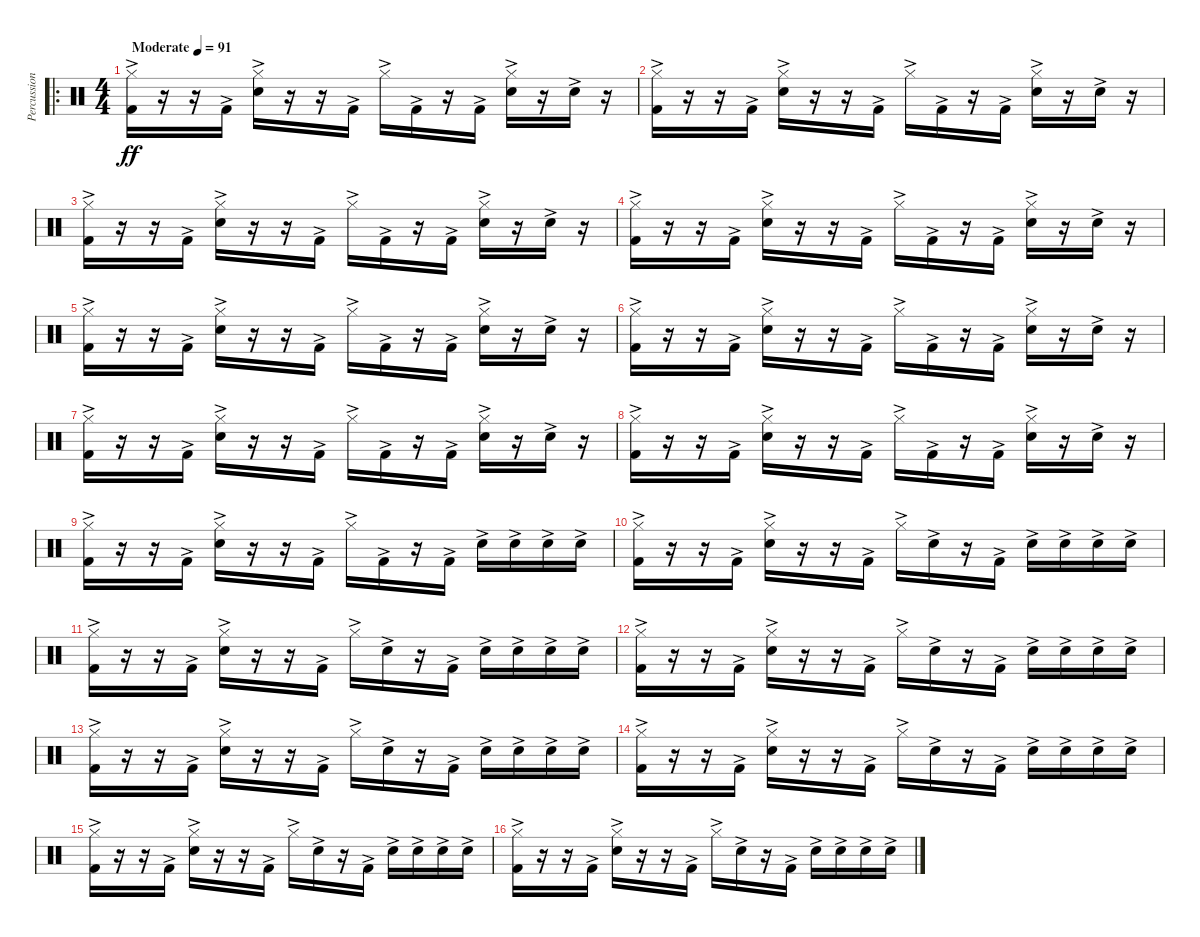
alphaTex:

\track ("Percussion" "Percussion") {instrument percussion}
\staff {score}
\articulation defaults
\ro
\ts (4 4)
\tempo (91 "Moderate")
\clef neutral
\ks c
("Hi-Hat (closed)"{ac} "Kick (hit) 2"{ac}).16{dy ff} r.16 r.16 "Kick (hit) 2"{ac}.16 ("Hi-Hat (closed)"{ac} "Snare (hit) 2"{ac}).16 r.16 r.16 "Kick (hit) 2"{ac}.16 "Hi-Hat (closed)"{ac}.16 "Kick (hit) 2"{ac}.16 r.16 "Kick (hit) 2"{ac}.16 ("Hi-Hat (closed)"{ac} "Snare (hit) 2"{ac}).16 r.16 "Snare (hit) 2"{ac}.16 r.16 |
("Hi-Hat (closed)"{ac} "Kick (hit) 2"{ac}).16 r.16 r.16 "Kick (hit) 2"{ac}.16 ("Hi-Hat (closed)"{ac} "Snare (hit) 2"{ac}).16 r.16 r.16 "Kick (hit) 2"{ac}.16 "Hi-Hat (closed)"{ac}.16 "Kick (hit) 2"{ac}.16 r.16 "Kick (hit) 2"{ac}.16 ("Hi-Hat (closed)"{ac} "Snare (hit) 2"{ac}).16 r.16 "Snare (hit) 2"{ac}.16 r.16 |
("Hi-Hat (closed)"{ac} "Kick (hit) 2"{ac}).16 r.16 r.16 "Kick (hit) 2"{ac}.16 ("Hi-Hat (closed)"{ac} "Snare (hit) 2"{ac}).16 r.16 r.16 "Kick (hit) 2"{ac}.16 "Hi-Hat (closed)"{ac}.16 "Kick (hit) 2"{ac}.16 r.16 "Kick (hit) 2"{ac}.16 ("Hi-Hat (closed)"{ac} "Snare (hit) 2"{ac}).16 r.16 "Snare (hit) 2"{ac}.16 r.16 |
("Hi-Hat (closed)"{ac} "Kick (hit) 2"{ac}).16 r.16 r.16 "Kick (hit) 2"{ac}.16 ("Hi-Hat (closed)"{ac} "Snare (hit) 2"{ac}).16 r.16 r.16 "Kick (hit) 2"{ac}.16 "Hi-Hat (closed)"{ac}.16 "Kick (hit) 2"{ac}.16 r.16 "Kick (hit) 2"{ac}.16 ("Hi-Hat (closed)"{ac} "Snare (hit) 2"{ac}).16 r.16 "Snare (hit) 2"{ac}.16 r.16 |
("Hi-Hat (closed)"{ac} "Kick (hit) 2"{ac}).16 r.16 r.16 "Kick (hit) 2"{ac}.16 ("Hi-Hat (closed)"{ac} "Snare (hit) 2"{ac}).16 r.16 r.16 "Kick (hit) 2"{ac}.16 "Hi-Hat (closed)"{ac}.16 "Kick (hit) 2"{ac}.16 r.16 "Kick (hit) 2"{ac}.16 ("Hi-Hat (closed)"{ac} "Snare (hit) 2"{ac}).16 r.16 "Snare (hit) 2"{ac}.16 r.16 |
("Hi-Hat (closed)"{ac} "Kick (hit) 2"{ac}).16 r.16 r.16 "Kick (hit) 2"{ac}.16 ("Hi-Hat (closed)"{ac} "Snare (hit) 2"{ac}).16 r.16 r.16 "Kick (hit) 2"{ac}.16 "Hi-Hat (closed)"{ac}.16 "Kick (hit) 2"{ac}.16 r.16 "Kick (hit) 2"{ac}.16 ("Hi-Hat (closed)"{ac} "Snare (hit) 2"{ac}).16 r.16 "Snare (hit) 2"{ac}.16 r.16 |
("Hi-Hat (closed)"{ac} "Kick (hit) 2"{ac}).16 r.16 r.16 "Kick (hit) 2"{ac}.16 ("Hi-Hat (closed)"{ac} "Snare (hit) 2"{ac}).16 r.16 r.16 "Kick (hit) 2"{ac}.16 "Hi-Hat (closed)"{ac}.16 "Kick (hit) 2"{ac}.16 r.16 "Kick (hit) 2"{ac}.16 ("Hi-Hat (closed)"{ac} "Snare (hit) 2"{ac}).16 r.16 "Snare (hit) 2"{ac}.16 r.16 |
("Hi-Hat (closed)"{ac} "Kick (hit) 2"{ac}).16 r.16 r.16 "Kick (hit) 2"{ac}.16 ("Hi-Hat (closed)"{ac} "Snare (hit) 2"{ac}).16 r.16 r.16 "Kick (hit) 2"{ac}.16 "Hi-Hat (closed)"{ac}.16 "Kick (hit) 2"{ac}.16 r.16 "Kick (hit) 2"{ac}.16 ("Hi-Hat (closed)"{ac} "Snare (hit) 2"{ac}).16 r.16 "Snare (hit) 2"{ac}.16 r.16 |
("Hi-Hat (closed)"{ac} "Kick (hit) 2"{ac}).16 r.16 r.16 "Kick (hit) 2"{ac}.16 ("Hi-Hat (closed)"{ac} "Snare (hit) 2"{ac}).16 r.16 r.16 "Kick (hit) 2"{ac}.16 "Hi-Hat (closed)"{ac}.16 "Kick (hit) 2"{ac}.16 r.16 "Kick (hit) 2"{ac}.16 "Snare (hit) 2"{ac}.16 "Snare (hit) 2"{ac}.16 "Snare (hit) 2"{ac}.16 "Snare (hit) 2"{ac}.16 |
("Hi-Hat (closed)"{ac} "Kick (hit) 2"{ac}).16 r.16 r.16 "Kick (hit) 2"{ac}.16 ("Hi-Hat (closed)"{ac} "Snare (hit) 2"{ac}).16 r.16 r.16 "Kick (hit) 2"{ac}.16 "Hi-Hat (closed)"{ac}.16 "Snare (hit) 2"{ac}.16 r.16 "Kick (hit) 2"{ac}.16 "Snare (hit) 2"{ac}.16 "Snare (hit) 2"{ac}.16 "Snare (hit) 2"{ac}.16 "Snare (hit) 2"{ac}.16 |
("Hi-Hat (closed)"{ac} "Kick (hit) 2"{ac}).16 r.16 r.16 "Kick (hit) 2"{ac}.16 ("Hi-Hat (closed)"{ac} "Snare (hit) 2"{ac}).16 r.16 r.16 "Kick (hit) 2"{ac}.16 "Hi-Hat (closed)"{ac}.16 "Snare (hit) 2"{ac}.16 r.16 "Kick (hit) 2"{ac}.16 "Snare (hit) 2"{ac}.16 "Snare (hit) 2"{ac}.16 "Snare (hit) 2"{ac}.16 "Snare (hit) 2"{ac}.16 |
("Hi-Hat (closed)"{ac} "Kick (hit) 2"{ac}).16 r.16 r.16 "Kick (hit) 2"{ac}.16 ("Hi-Hat (closed)"{ac} "Snare (hit) 2"{ac}).16 r.16 r.16 "Kick (hit) 2"{ac}.16 "Hi-Hat (closed)"{ac}.16 "Snare (hit) 2"{ac}.16 r.16 "Kick (hit) 2"{ac}.16 "Snare (hit) 2"{ac}.16 "Snare (hit) 2"{ac}.16 "Snare (hit) 2"{ac}.16 "Snare (hit) 2"{ac}.16 |
("Hi-Hat (closed)"{ac} "Kick (hit) 2"{ac}).16 r.16 r.16 "Kick (hit) 2"{ac}.16 ("Hi-Hat (closed)"{ac} "Snare (hit) 2"{ac}).16 r.16 r.16 "Kick (hit) 2"{ac}.16 "Hi-Hat (closed)"{ac}.16 "Snare (hit) 2"{ac}.16 r.16 "Kick (hit) 2"{ac}.16 "Snare (hit) 2"{ac}.16 "Snare (hit) 2"{ac}.16 "Snare (hit) 2"{ac}.16 "Snare (hit) 2"{ac}.16 |
("Hi-Hat (closed)"{ac} "Kick (hit) 2"{ac}).16 r.16 r.16 "Kick (hit) 2"{ac}.16 ("Hi-Hat (closed)"{ac} "Snare (hit) 2"{ac}).16 r.16 r.16 "Kick (hit) 2"{ac}.16 "Hi-Hat (closed)"{ac}.16 "Snare (hit) 2"{ac}.16 r.16 "Kick (hit) 2"{ac}.16 "Snare (hit) 2"{ac}.16 "Snare (hit) 2"{ac}.16 "Snare (hit) 2"{ac}.16 "Snare (hit) 2"{ac}.16 |
("Hi-Hat (closed)"{ac} "Kick (hit) 2"{ac}).16 r.16 r.16 "Kick (hit) 2"{ac}.16 ("Hi-Hat (closed)"{ac} "Snare (hit) 2"{ac}).16 r.16 r.16 "Kick (hit) 2"{ac}.16 "Hi-Hat (closed)"{ac}.16 "Snare (hit) 2"{ac}.16 r.16 "Kick (hit) 2"{ac}.16 "Snare (hit) 2"{ac}.16 "Snare (hit) 2"{ac}.16 "Snare (hit) 2"{ac}.16 "Snare (hit) 2"{ac}.16 |
("Hi-Hat (closed)"{ac} "Kick (hit) 2"{ac}).16 r.16 r.16 "Kick (hit) 2"{ac}.16 ("Hi-Hat (closed)"{ac} "Snare (hit) 2"{ac}).16 r.16 r.16 "Kick (hit) 2"{ac}.16 "Hi-Hat (closed)"{ac}.16 "Snare (hit) 2"{ac}.16 r.16 "Kick (hit) 2"{ac}.16 "Snare (hit) 2"{ac}.16 "Snare (hit) 2"{ac}.16 "Snare (hit) 2"{ac}.16 "Snare (hit) 2"{ac}.16
